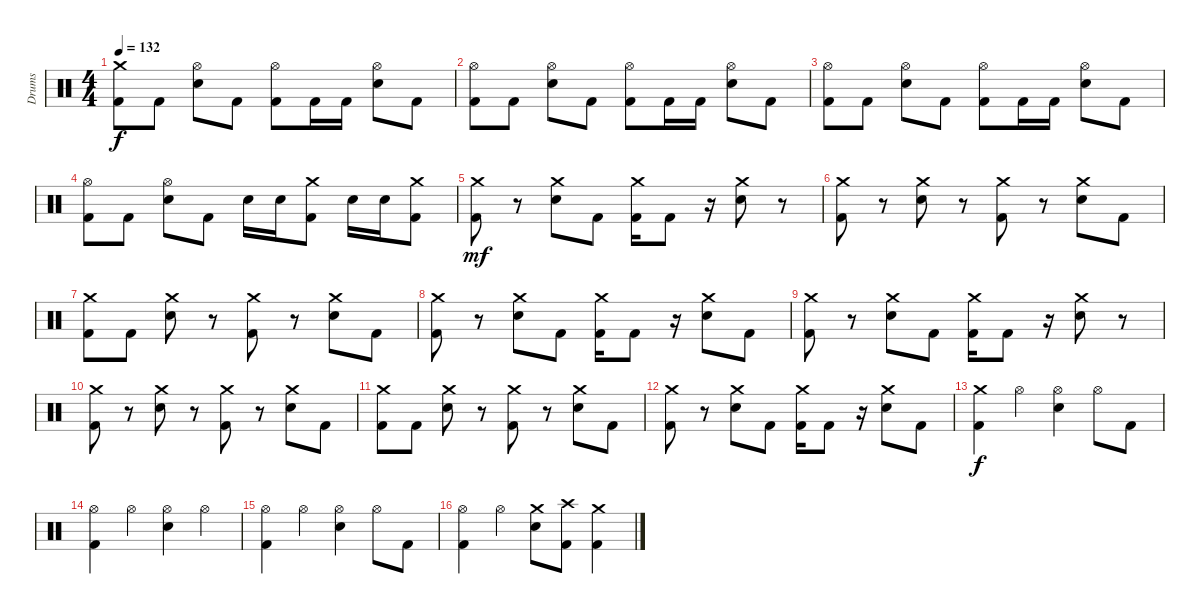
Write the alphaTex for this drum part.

\track ("Drums" "Drums") {instrument percussion}
\staff {score}
\articulation defaults
\ts (4 4)
\tempo 132
\clef neutral
\ks c
("Crash medium (hit)" "Kick (hit) 2").8{dy f} "Kick (hit) 2".8 ("Hi-Hat (open)" "Electric Snare (hit)").8 "Kick (hit) 2".8 ("Hi-Hat (open)" "Kick (hit) 2").8 "Kick (hit) 2".16 "Kick (hit) 2".16 ("Hi-Hat (open)" "Electric Snare (hit)").8 "Kick (hit) 2".8 |
("Hi-Hat (open)" "Kick (hit) 2").8 "Kick (hit) 2".8 ("Hi-Hat (open)" "Electric Snare (hit)").8 "Kick (hit) 2".8 ("Hi-Hat (open)" "Kick (hit) 2").8 "Kick (hit) 2".16 "Kick (hit) 2".16 ("Hi-Hat (open)" "Electric Snare (hit)").8 "Kick (hit) 2".8 |
("Hi-Hat (open)" "Kick (hit) 2").8 "Kick (hit) 2".8 ("Hi-Hat (open)" "Electric Snare (hit)").8 "Kick (hit) 2".8 ("Hi-Hat (open)" "Kick (hit) 2").8 "Kick (hit) 2".16 "Kick (hit) 2".16 ("Hi-Hat (open)" "Electric Snare (hit)").8 "Kick (hit) 2".8 |
("Hi-Hat (open)" "Kick (hit) 2").8 "Kick (hit) 2".8 ("Hi-Hat (open)" "Electric Snare (hit)").8 "Kick (hit) 2".8 "Electric Snare (hit)".16 "Electric Snare (hit)".16 ("Crash medium (hit)" "Kick (hit) 2").8 "Electric Snare (hit)".16 "Electric Snare (hit)".16 ("Crash medium (hit)" "Kick (hit) 2").8 |
("Crash medium (hit)" "Kick (hit) 2").8{dy mf} r.8 ("Crash medium (hit)" "Electric Snare (hit)").8 "Kick (hit) 2".8 ("Crash medium (hit)" "Kick (hit) 2").16 "Kick (hit) 2".8 r.16 ("Crash medium (hit)" "Electric Snare (hit)").8 r.8 |
("Crash medium (hit)" "Kick (hit) 2").8 r.8 ("Crash medium (hit)" "Electric Snare (hit)").8 r.8 ("Crash medium (hit)" "Kick (hit) 2").8 r.8 ("Crash medium (hit)" "Electric Snare (hit)").8 "Kick (hit) 2".8 |
("Crash medium (hit)" "Kick (hit) 2").8 "Kick (hit) 2".8 ("Crash medium (hit)" "Electric Snare (hit)").8 r.8 ("Crash medium (hit)" "Kick (hit) 2").8 r.8 ("Crash medium (hit)" "Electric Snare (hit)").8 "Kick (hit) 2".8 |
("Crash medium (hit)" "Kick (hit) 2").8 r.8 ("Crash medium (hit)" "Electric Snare (hit)").8 "Kick (hit) 2".8 ("Crash medium (hit)" "Kick (hit) 2").16 "Kick (hit) 2".8 r.16 ("Crash medium (hit)" "Electric Snare (hit)").8 "Kick (hit) 2".8 |
("Crash medium (hit)" "Kick (hit) 2").8 r.8 ("Crash medium (hit)" "Electric Snare (hit)").8 "Kick (hit) 2".8 ("Crash medium (hit)" "Kick (hit) 2").16 "Kick (hit) 2".8 r.16 ("Crash medium (hit)" "Electric Snare (hit)").8 r.8 |
("Crash medium (hit)" "Kick (hit) 2").8 r.8 ("Crash medium (hit)" "Electric Snare (hit)").8 r.8 ("Crash medium (hit)" "Kick (hit) 2").8 r.8 ("Crash medium (hit)" "Electric Snare (hit)").8 "Kick (hit) 2".8 |
("Crash medium (hit)" "Kick (hit) 2").8 "Kick (hit) 2".8 ("Crash medium (hit)" "Electric Snare (hit)").8 r.8 ("Crash medium (hit)" "Kick (hit) 2").8 r.8 ("Crash medium (hit)" "Electric Snare (hit)").8 "Kick (hit) 2".8 |
("Crash medium (hit)" "Kick (hit) 2").8 r.8 ("Crash medium (hit)" "Electric Snare (hit)").8 "Kick (hit) 2".8 ("Crash medium (hit)" "Kick (hit) 2").16 "Kick (hit) 2".8 r.16 ("Crash medium (hit)" "Electric Snare (hit)").8 "Kick (hit) 2".8 |
("Crash medium (hit)" "Kick (hit) 2").4{dy f} "Hi-Hat (open)".4 ("Hi-Hat (open)" "Electric Snare (hit)").4 "Hi-Hat (open)".8 "Kick (hit) 2".8 |
("Hi-Hat (open)" "Kick (hit) 2").4 "Hi-Hat (open)".4 ("Hi-Hat (open)" "Electric Snare (hit)").4 "Hi-Hat (open)".4 |
("Hi-Hat (open)" "Kick (hit) 2").4 "Hi-Hat (open)".4 ("Hi-Hat (open)" "Electric Snare (hit)").4 "Hi-Hat (open)".8 "Kick (hit) 2".8 |
("Hi-Hat (open)" "Kick (hit) 2").4 "Hi-Hat (open)".4 ("Crash medium (hit)" "Electric Snare (hit)").8 ("Crash high (hit)" "Kick (hit) 2").8 ("Crash medium (hit)" "Kick (hit) 2").4
